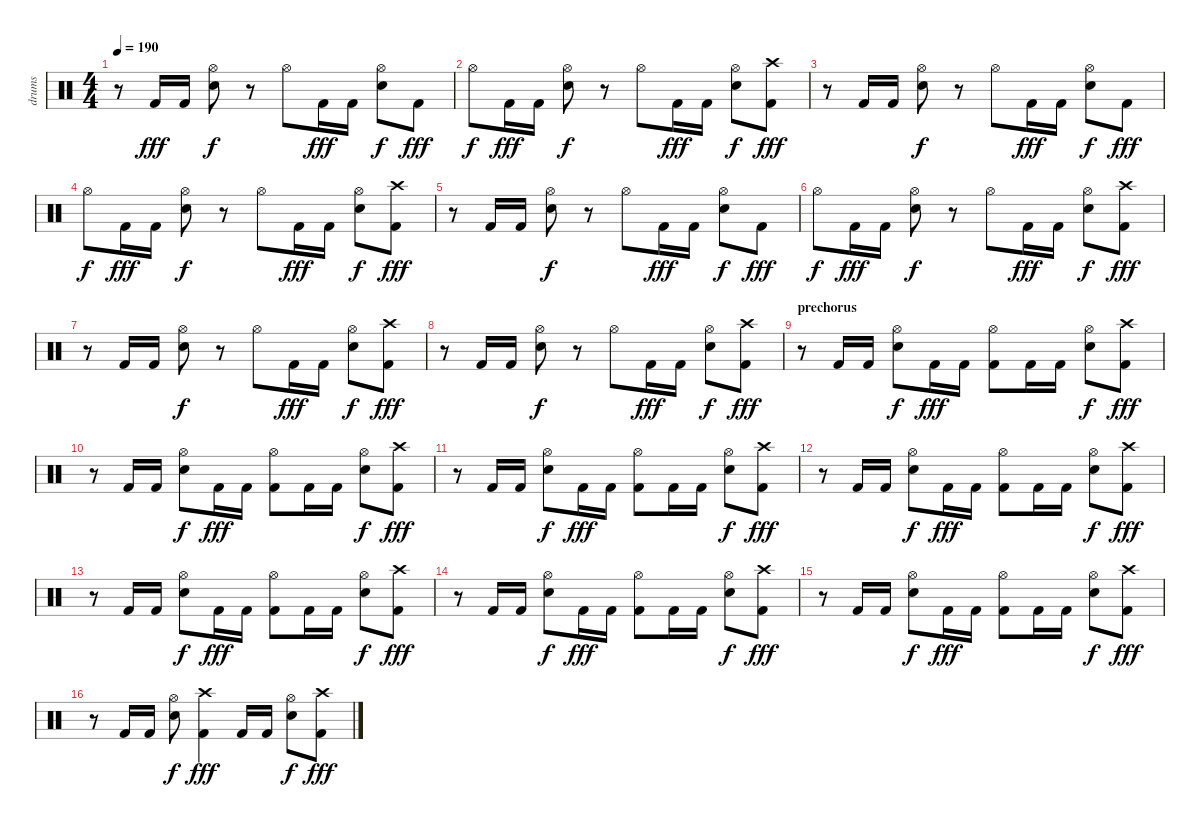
\track ("drums" "drums") {instrument percussion}
\staff {score}
\articulation defaults
\ts (4 4)
\tempo 190
\clef neutral
\ks c
r.8{dy fff} "Kick (hit) 2".16 "Kick (hit) 2".16 ("Hi-Hat (open)" "Snare (hit) 2").8{dy f} r.8 "Hi-Hat (open)".8 "Kick (hit) 2".16{dy fff} "Kick (hit) 2".16 ("Hi-Hat (open)" "Snare (hit) 2").8{dy f} "Kick (hit) 2".8{dy fff} |
"Hi-Hat (open)".8{dy f} "Kick (hit) 2".16{dy fff} "Kick (hit) 2".16 ("Hi-Hat (open)" "Snare (hit) 2").8{dy f} r.8 "Hi-Hat (open)".8 "Kick (hit) 2".16{dy fff} "Kick (hit) 2".16 ("Hi-Hat (open)" "Snare (hit) 2").8{dy f} ("Crash high (hit)" "Kick (hit) 2").8{dy fff} |
r.8 "Kick (hit) 2".16 "Kick (hit) 2".16 ("Hi-Hat (open)" "Snare (hit) 2").8{dy f} r.8 "Hi-Hat (open)".8 "Kick (hit) 2".16{dy fff} "Kick (hit) 2".16 ("Hi-Hat (open)" "Snare (hit) 2").8{dy f} "Kick (hit) 2".8{dy fff} |
"Hi-Hat (open)".8{dy f} "Kick (hit) 2".16{dy fff} "Kick (hit) 2".16 ("Hi-Hat (open)" "Snare (hit) 2").8{dy f} r.8 "Hi-Hat (open)".8 "Kick (hit) 2".16{dy fff} "Kick (hit) 2".16 ("Hi-Hat (open)" "Snare (hit) 2").8{dy f} ("Crash high (hit)" "Kick (hit) 2").8{dy fff} |
r.8 "Kick (hit) 2".16 "Kick (hit) 2".16 ("Hi-Hat (open)" "Snare (hit) 2").8{dy f} r.8 "Hi-Hat (open)".8 "Kick (hit) 2".16{dy fff} "Kick (hit) 2".16 ("Hi-Hat (open)" "Snare (hit) 2").8{dy f} "Kick (hit) 2".8{dy fff} |
"Hi-Hat (open)".8{dy f} "Kick (hit) 2".16{dy fff} "Kick (hit) 2".16 ("Hi-Hat (open)" "Snare (hit) 2").8{dy f} r.8 "Hi-Hat (open)".8 "Kick (hit) 2".16{dy fff} "Kick (hit) 2".16 ("Hi-Hat (open)" "Snare (hit) 2").8{dy f} ("Crash high (hit)" "Kick (hit) 2").8{dy fff} |
r.8 "Kick (hit) 2".16 "Kick (hit) 2".16 ("Hi-Hat (open)" "Snare (hit) 2").8{dy f} r.8 "Hi-Hat (open)".8 "Kick (hit) 2".16{dy fff} "Kick (hit) 2".16 ("Hi-Hat (open)" "Snare (hit) 2").8{dy f} ("Crash high (hit)" "Kick (hit) 2").8{dy fff} |
r.8 "Kick (hit) 2".16 "Kick (hit) 2".16 ("Hi-Hat (open)" "Snare (hit) 2").8{dy f} r.8 "Hi-Hat (open)".8 "Kick (hit) 2".16{dy fff} "Kick (hit) 2".16 ("Hi-Hat (open)" "Snare (hit) 2").8{dy f} ("Crash high (hit)" "Kick (hit) 2").8{dy fff} |
\section ("" "prechorus")
r.8 "Kick (hit) 2".16 "Kick (hit) 2".16 ("Hi-Hat (open)" "Snare (hit) 2").8{dy f} "Kick (hit) 2".16{dy fff} "Kick (hit) 2".16 ("Hi-Hat (open)" "Kick (hit) 2").8 "Kick (hit) 2".16 "Kick (hit) 2".16 ("Hi-Hat (open)" "Snare (hit) 2").8{dy f} ("Crash high (hit)" "Kick (hit) 2").8{dy fff} |
r.8 "Kick (hit) 2".16 "Kick (hit) 2".16 ("Hi-Hat (open)" "Snare (hit) 2").8{dy f} "Kick (hit) 2".16{dy fff} "Kick (hit) 2".16 ("Hi-Hat (open)" "Kick (hit) 2").8 "Kick (hit) 2".16 "Kick (hit) 2".16 ("Hi-Hat (open)" "Snare (hit) 2").8{dy f} ("Crash high (hit)" "Kick (hit) 2").8{dy fff} |
r.8 "Kick (hit) 2".16 "Kick (hit) 2".16 ("Hi-Hat (open)" "Snare (hit) 2").8{dy f} "Kick (hit) 2".16{dy fff} "Kick (hit) 2".16 ("Hi-Hat (open)" "Kick (hit) 2").8 "Kick (hit) 2".16 "Kick (hit) 2".16 ("Hi-Hat (open)" "Snare (hit) 2").8{dy f} ("Crash high (hit)" "Kick (hit) 2").8{dy fff} |
r.8 "Kick (hit) 2".16 "Kick (hit) 2".16 ("Hi-Hat (open)" "Snare (hit) 2").8{dy f} "Kick (hit) 2".16{dy fff} "Kick (hit) 2".16 ("Hi-Hat (open)" "Kick (hit) 2").8 "Kick (hit) 2".16 "Kick (hit) 2".16 ("Hi-Hat (open)" "Snare (hit) 2").8{dy f} ("Crash high (hit)" "Kick (hit) 2").8{dy fff} |
r.8 "Kick (hit) 2".16 "Kick (hit) 2".16 ("Hi-Hat (open)" "Snare (hit) 2").8{dy f} "Kick (hit) 2".16{dy fff} "Kick (hit) 2".16 ("Hi-Hat (open)" "Kick (hit) 2").8 "Kick (hit) 2".16 "Kick (hit) 2".16 ("Hi-Hat (open)" "Snare (hit) 2").8{dy f} ("Crash high (hit)" "Kick (hit) 2").8{dy fff} |
r.8 "Kick (hit) 2".16 "Kick (hit) 2".16 ("Hi-Hat (open)" "Snare (hit) 2").8{dy f} "Kick (hit) 2".16{dy fff} "Kick (hit) 2".16 ("Hi-Hat (open)" "Kick (hit) 2").8 "Kick (hit) 2".16 "Kick (hit) 2".16 ("Hi-Hat (open)" "Snare (hit) 2").8{dy f} ("Crash high (hit)" "Kick (hit) 2").8{dy fff} |
r.8 "Kick (hit) 2".16 "Kick (hit) 2".16 ("Hi-Hat (open)" "Snare (hit) 2").8{dy f} "Kick (hit) 2".16{dy fff} "Kick (hit) 2".16 ("Hi-Hat (open)" "Kick (hit) 2").8 "Kick (hit) 2".16 "Kick (hit) 2".16 ("Hi-Hat (open)" "Snare (hit) 2").8{dy f} ("Crash high (hit)" "Kick (hit) 2").8{dy fff} |
r.8 "Kick (hit) 2".16 "Kick (hit) 2".16 ("Hi-Hat (open)" "Snare (hit) 2").8{dy f} ("Crash high (hit)" "Kick (hit) 2").4{dy fff} "Kick (hit) 2".16 "Kick (hit) 2".16 ("Hi-Hat (open)" "Snare (hit) 2").8{dy f} ("Crash high (hit)" "Kick (hit) 2").8{dy fff}
